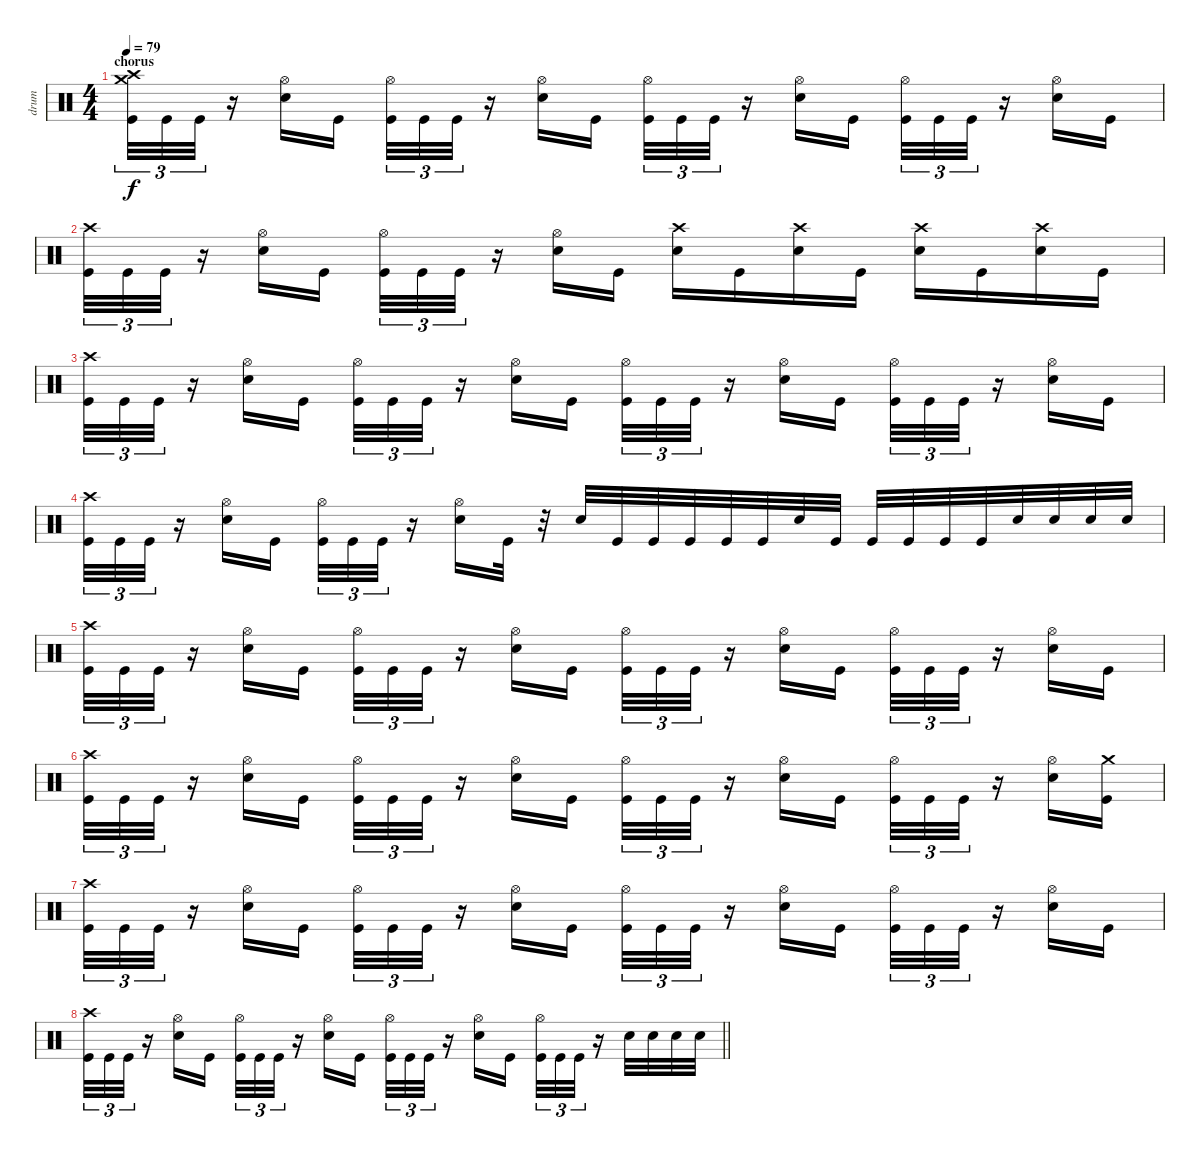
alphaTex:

\track ("drum" "drum") {instrument percussion}
\staff {score}
\articulation defaults
\ts (4 4)
\section ("" "chorus")
\tempo 79
\clef neutral
\ks c
("Crash medium (hit)" "Crash high (hit)" "Kick (hit)").32{tu (3 2) dy f} "Kick (hit)".32{tu (3 2)} "Kick (hit)".32{tu (3 2)} r.16 ("Hi-Hat (open)" "Snare (hit) 2").16 "Kick (hit)".16 ("Hi-Hat (open)" "Kick (hit)").32{tu (3 2)} "Kick (hit)".32{tu (3 2)} "Kick (hit)".32{tu (3 2)} r.16 ("Hi-Hat (open)" "Snare (hit) 2").16 "Kick (hit)".16 ("Hi-Hat (open)" "Kick (hit)").32{tu (3 2)} "Kick (hit)".32{tu (3 2)} "Kick (hit)".32{tu (3 2)} r.16 ("Hi-Hat (open)" "Snare (hit) 2").16 "Kick (hit)".16 ("Hi-Hat (open)" "Kick (hit)").32{tu (3 2)} "Kick (hit)".32{tu (3 2)} "Kick (hit)".32{tu (3 2)} r.16 ("Hi-Hat (open)" "Snare (hit) 2").16 "Kick (hit)".16 |
("Crash high (hit)" "Kick (hit)").32{tu (3 2)} "Kick (hit)".32{tu (3 2)} "Kick (hit)".32{tu (3 2)} r.16 ("Hi-Hat (open)" "Snare (hit) 2").16 "Kick (hit)".16 ("Hi-Hat (open)" "Kick (hit)").32{tu (3 2)} "Kick (hit)".32{tu (3 2)} "Kick (hit)".32{tu (3 2)} r.16 ("Hi-Hat (open)" "Snare (hit) 2").16 "Kick (hit)".16 ("Snare (hit) 2" "Crash high (hit)").16 "Kick (hit)".16 ("Snare (hit) 2" "Crash high (hit)").16 "Kick (hit)".16 ("Snare (hit) 2" "Crash high (hit)").16 "Kick (hit)".16 ("Snare (hit) 2" "Crash high (hit)").16 "Kick (hit)".16 |
("Crash high (hit)" "Kick (hit)").32{tu (3 2)} "Kick (hit)".32{tu (3 2)} "Kick (hit)".32{tu (3 2)} r.16 ("Hi-Hat (open)" "Snare (hit) 2").16 "Kick (hit)".16 ("Hi-Hat (open)" "Kick (hit)").32{tu (3 2)} "Kick (hit)".32{tu (3 2)} "Kick (hit)".32{tu (3 2)} r.16 ("Hi-Hat (open)" "Snare (hit) 2").16 "Kick (hit)".16 ("Hi-Hat (open)" "Kick (hit)").32{tu (3 2)} "Kick (hit)".32{tu (3 2)} "Kick (hit)".32{tu (3 2)} r.16 ("Hi-Hat (open)" "Snare (hit) 2").16 "Kick (hit)".16 ("Hi-Hat (open)" "Kick (hit)").32{tu (3 2)} "Kick (hit)".32{tu (3 2)} "Kick (hit)".32{tu (3 2)} r.16 ("Hi-Hat (open)" "Snare (hit) 2").16 "Kick (hit)".16 |
("Crash high (hit)" "Kick (hit)").32{tu (3 2)} "Kick (hit)".32{tu (3 2)} "Kick (hit)".32{tu (3 2)} r.16 ("Hi-Hat (open)" "Snare (hit) 2").16 "Kick (hit)".16 ("Hi-Hat (open)" "Kick (hit)").32{tu (3 2)} "Kick (hit)".32{tu (3 2)} "Kick (hit)".32{tu (3 2)} r.16 ("Hi-Hat (open)" "Snare (hit) 2").16 "Kick (hit)".32 r.32 "Snare (hit) 2".32 "Kick (hit)".32 "Kick (hit)".32 "Kick (hit)".32 "Kick (hit)".32 "Kick (hit)".32 "Snare (hit) 2".32 "Kick (hit)".32 "Kick (hit)".32 "Kick (hit)".32 "Kick (hit)".32 "Kick (hit)".32 "Snare (hit) 2".32 "Snare (hit) 2".32 "Snare (hit) 2".32 "Snare (hit) 2".32 |
("Crash high (hit)" "Kick (hit)").32{tu (3 2)} "Kick (hit)".32{tu (3 2)} "Kick (hit)".32{tu (3 2)} r.16 ("Hi-Hat (open)" "Snare (hit) 2").16 "Kick (hit)".16 ("Hi-Hat (open)" "Kick (hit)").32{tu (3 2)} "Kick (hit)".32{tu (3 2)} "Kick (hit)".32{tu (3 2)} r.16 ("Hi-Hat (open)" "Snare (hit) 2").16 "Kick (hit)".16 ("Hi-Hat (open)" "Kick (hit)").32{tu (3 2)} "Kick (hit)".32{tu (3 2)} "Kick (hit)".32{tu (3 2)} r.16 ("Hi-Hat (open)" "Snare (hit) 2").16 "Kick (hit)".16 ("Hi-Hat (open)" "Kick (hit)").32{tu (3 2)} "Kick (hit)".32{tu (3 2)} "Kick (hit)".32{tu (3 2)} r.16 ("Hi-Hat (open)" "Snare (hit) 2").16 "Kick (hit)".16 |
("Crash high (hit)" "Kick (hit)").32{tu (3 2)} "Kick (hit)".32{tu (3 2)} "Kick (hit)".32{tu (3 2)} r.16 ("Hi-Hat (open)" "Snare (hit) 2").16 "Kick (hit)".16 ("Hi-Hat (open)" "Kick (hit)").32{tu (3 2)} "Kick (hit)".32{tu (3 2)} "Kick (hit)".32{tu (3 2)} r.16 ("Hi-Hat (open)" "Snare (hit) 2").16 "Kick (hit)".16 ("Hi-Hat (open)" "Kick (hit)").32{tu (3 2)} "Kick (hit)".32{tu (3 2)} "Kick (hit)".32{tu (3 2)} r.16 ("Hi-Hat (open)" "Snare (hit) 2").16 "Kick (hit)".16 ("Hi-Hat (open)" "Kick (hit)").32{tu (3 2)} "Kick (hit)".32{tu (3 2)} "Kick (hit)".32{tu (3 2)} r.16 ("Hi-Hat (open)" "Snare (hit) 2").16 ("Crash medium (hit)" "Kick (hit)").16 |
("Crash high (hit)" "Kick (hit)").32{tu (3 2)} "Kick (hit)".32{tu (3 2)} "Kick (hit)".32{tu (3 2)} r.16 ("Hi-Hat (open)" "Snare (hit) 2").16 "Kick (hit)".16 ("Hi-Hat (open)" "Kick (hit)").32{tu (3 2)} "Kick (hit)".32{tu (3 2)} "Kick (hit)".32{tu (3 2)} r.16 ("Hi-Hat (open)" "Snare (hit) 2").16 "Kick (hit)".16 ("Hi-Hat (open)" "Kick (hit)").32{tu (3 2)} "Kick (hit)".32{tu (3 2)} "Kick (hit)".32{tu (3 2)} r.16 ("Hi-Hat (open)" "Snare (hit) 2").16 "Kick (hit)".16 ("Hi-Hat (open)" "Kick (hit)").32{tu (3 2)} "Kick (hit)".32{tu (3 2)} "Kick (hit)".32{tu (3 2)} r.16 ("Hi-Hat (open)" "Snare (hit) 2").16 "Kick (hit)".16 |
\barLineRight lightlight
("Crash high (hit)" "Kick (hit)").32{tu (3 2)} "Kick (hit)".32{tu (3 2)} "Kick (hit)".32{tu (3 2)} r.16 ("Hi-Hat (open)" "Snare (hit) 2").16 "Kick (hit)".16 ("Hi-Hat (open)" "Kick (hit)").32{tu (3 2)} "Kick (hit)".32{tu (3 2)} "Kick (hit)".32{tu (3 2)} r.16 ("Hi-Hat (open)" "Snare (hit) 2").16 "Kick (hit)".16 ("Hi-Hat (open)" "Kick (hit)").32{tu (3 2)} "Kick (hit)".32{tu (3 2)} "Kick (hit)".32{tu (3 2)} r.16 ("Hi-Hat (open)" "Snare (hit) 2").16 "Kick (hit)".16 ("Hi-Hat (open)" "Kick (hit)").32{tu (3 2)} "Kick (hit)".32{tu (3 2)} "Kick (hit)".32{tu (3 2)} r.16 "Snare (hit) 2".32 "Snare (hit) 2".32 "Snare (hit) 2".32 "Snare (hit) 2".32
